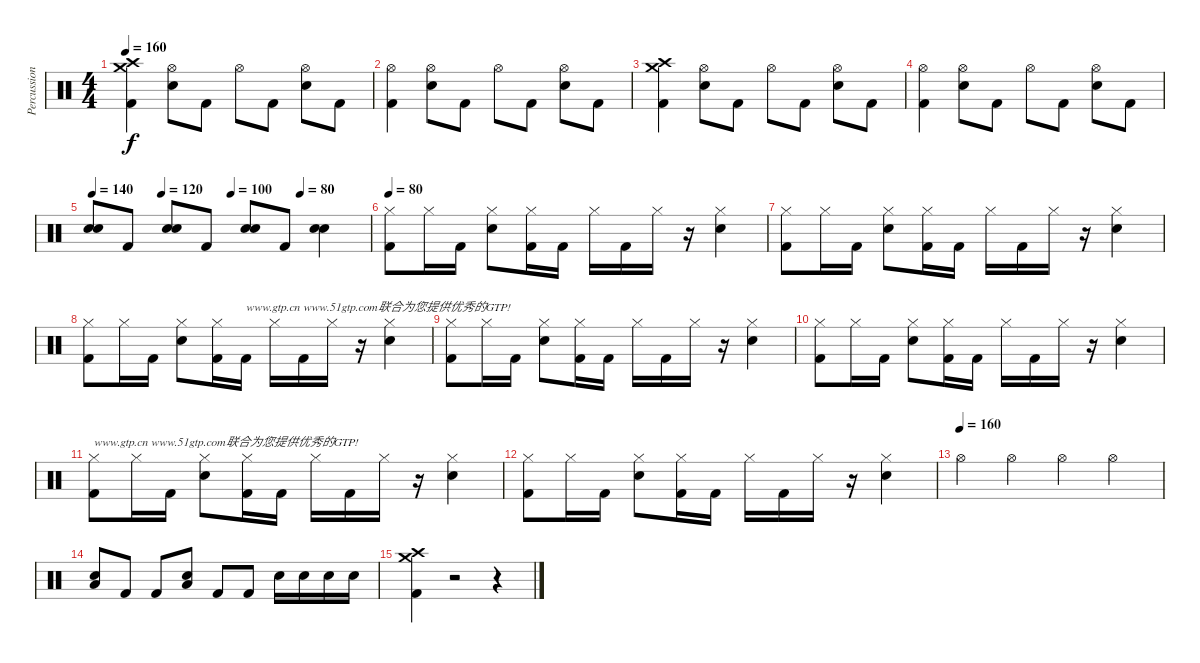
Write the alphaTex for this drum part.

\track ("Percussion" "Percussion") {instrument percussion}
\staff {score}
\articulation defaults
\ts (4 4)
\tempo 160
\clef neutral
\ks c
("Crash medium (hit)" "Crash high (hit)" "Kick (hit) 2").4{dy f} ("Hi-Hat (open)" "Electric Snare (hit)").8 "Kick (hit) 2".8 "Hi-Hat (open)".8 "Kick (hit) 2".8 ("Hi-Hat (open)" "Electric Snare (hit)").8 "Kick (hit) 2".8 |
("Hi-Hat (open)" "Kick (hit) 2").4 ("Hi-Hat (open)" "Electric Snare (hit)").8 "Kick (hit) 2".8 "Hi-Hat (open)".8 "Kick (hit) 2".8 ("Hi-Hat (open)" "Electric Snare (hit)").8 "Kick (hit) 2".8 |
("Crash medium (hit)" "Crash high (hit)" "Kick (hit) 2").4 ("Hi-Hat (open)" "Electric Snare (hit)").8 "Kick (hit) 2".8 "Hi-Hat (open)".8 "Kick (hit) 2".8 ("Hi-Hat (open)" "Electric Snare (hit)").8 "Kick (hit) 2".8 |
("Hi-Hat (open)" "Kick (hit) 2").4 ("Hi-Hat (open)" "Electric Snare (hit)").8 "Kick (hit) 2".8 "Hi-Hat (open)".8 "Kick (hit) 2".8 ("Hi-Hat (open)" "Electric Snare (hit)").8 "Kick (hit) 2".8 |
\tempo 140
\tempo (120 0.25)
\tempo (100 0.5)
\tempo (80 0.75)
("Electric Snare (hit)" "Electric Snare (hit)").8 "Kick (hit) 2".8 ("Electric Snare (hit)" "Electric Snare (hit)").8 "Kick (hit) 2".8 ("Electric Snare (hit)" "Electric Snare (hit)").8 "Kick (hit) 2".8 ("Electric Snare (hit)" "Electric Snare (hit)").4 |
\tempo 80
("Hi-Hat (closed)" "Kick (hit) 2").8 "Hi-Hat (closed)".16 "Kick (hit) 2".16 ("Hi-Hat (closed)" "Electric Snare (hit)").8 ("Hi-Hat (closed)" "Kick (hit) 2").16 "Kick (hit) 2".16 "Hi-Hat (closed)".16 "Kick (hit) 2".16 "Hi-Hat (closed)".16 r.16 ("Hi-Hat (closed)" "Electric Snare (hit)").4 |
("Hi-Hat (closed)" "Kick (hit) 2").8 "Hi-Hat (closed)".16 "Kick (hit) 2".16 ("Hi-Hat (closed)" "Electric Snare (hit)").8 ("Hi-Hat (closed)" "Kick (hit) 2").16 "Kick (hit) 2".16 "Hi-Hat (closed)".16 "Kick (hit) 2".16 "Hi-Hat (closed)".16 r.16 ("Hi-Hat (closed)" "Electric Snare (hit)").4 |
("Hi-Hat (closed)" "Kick (hit) 2").8 "Hi-Hat (closed)".16 "Kick (hit) 2".16 ("Hi-Hat (closed)" "Electric Snare (hit)").8 ("Hi-Hat (closed)" "Kick (hit) 2").16 "Kick (hit) 2".16{txt "www.gtp.cn www.51gtp.com联合为您提供优秀的GTP!"} "Hi-Hat (closed)".16 "Kick (hit) 2".16 "Hi-Hat (closed)".16 r.16 ("Hi-Hat (closed)" "Electric Snare (hit)").4 |
("Hi-Hat (closed)" "Kick (hit) 2").8 "Hi-Hat (closed)".16 "Kick (hit) 2".16 ("Hi-Hat (closed)" "Electric Snare (hit)").8 ("Hi-Hat (closed)" "Kick (hit) 2").16 "Kick (hit) 2".16 "Hi-Hat (closed)".16 "Kick (hit) 2".16 "Hi-Hat (closed)".16 r.16 ("Hi-Hat (closed)" "Electric Snare (hit)").4 |
("Hi-Hat (closed)" "Kick (hit) 2").8 "Hi-Hat (closed)".16 "Kick (hit) 2".16 ("Hi-Hat (closed)" "Electric Snare (hit)").8 ("Hi-Hat (closed)" "Kick (hit) 2").16 "Kick (hit) 2".16 "Hi-Hat (closed)".16 "Kick (hit) 2".16 "Hi-Hat (closed)".16 r.16 ("Hi-Hat (closed)" "Electric Snare (hit)").4 |
("Hi-Hat (closed)" "Kick (hit) 2").8{txt "www.gtp.cn www.51gtp.com联合为您提供优秀的GTP!"} "Hi-Hat (closed)".16 "Kick (hit) 2".16 ("Hi-Hat (closed)" "Electric Snare (hit)").8 ("Hi-Hat (closed)" "Kick (hit) 2").16 "Kick (hit) 2".16 "Hi-Hat (closed)".16 "Kick (hit) 2".16 "Hi-Hat (closed)".16 r.16 ("Hi-Hat (closed)" "Electric Snare (hit)").4 |
("Hi-Hat (closed)" "Kick (hit) 2").8 "Hi-Hat (closed)".16 "Kick (hit) 2".16 ("Hi-Hat (closed)" "Electric Snare (hit)").8 ("Hi-Hat (closed)" "Kick (hit) 2").16 "Kick (hit) 2".16 "Hi-Hat (closed)".16 "Kick (hit) 2".16 "Hi-Hat (closed)".16 r.16 ("Hi-Hat (closed)" "Electric Snare (hit)").4 |
\tempo (160)
"Hi-Hat (open)".4 "Hi-Hat (open)".4 "Hi-Hat (open)".4 "Hi-Hat (open)".4 |
("Electric Snare (hit)" "Low Floor Tom (hit)").8 "Kick (hit) 2".8 "Kick (hit) 2".8 ("Electric Snare (hit)" "Low Floor Tom (hit)").8 "Kick (hit) 2".8 "Kick (hit) 2".8 "Electric Snare (hit)".16 "Electric Snare (hit)".16 "Electric Snare (hit)".16 "Electric Snare (hit)".16 |
("Crash medium (hit)" "Crash high (hit)" "Kick (hit) 2").4 r.2 r.4
